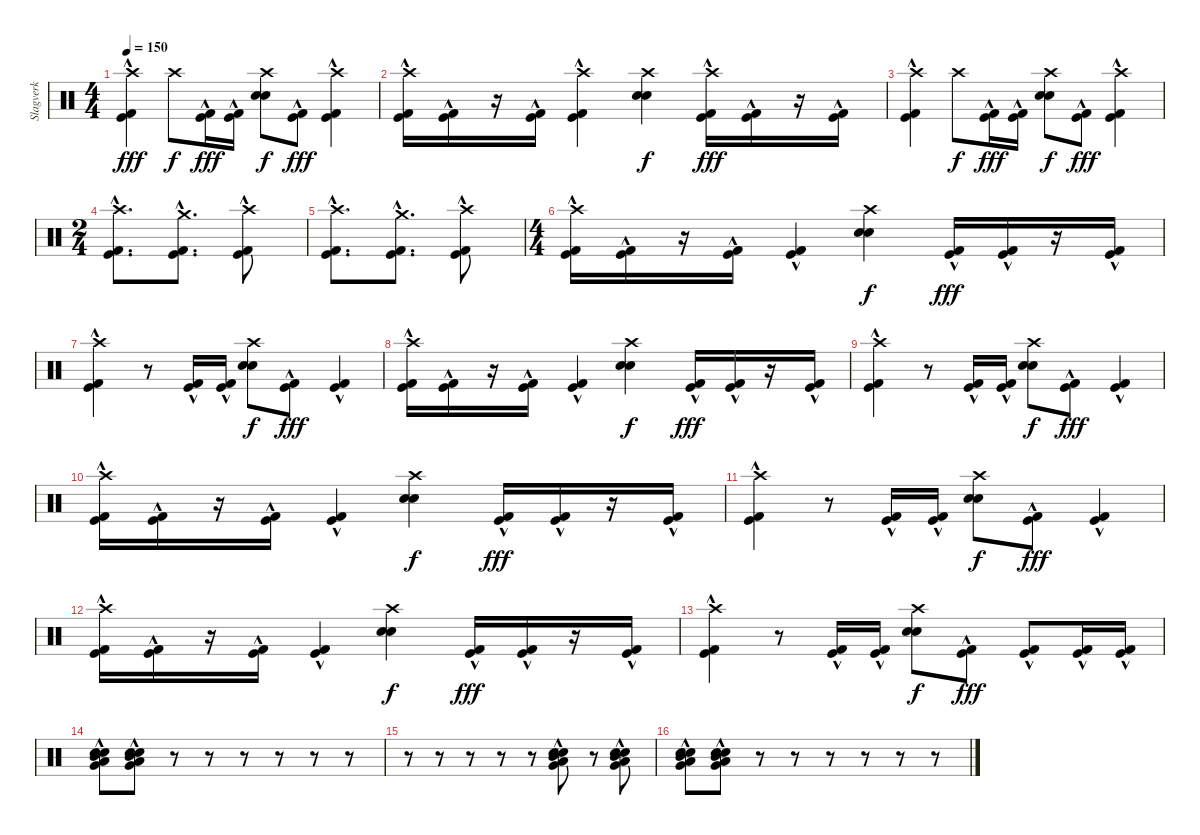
\track ("Slagverk" "Slagverk") {instrument percussion}
\staff {score}
\articulation defaults
\ts (4 4)
\tempo 150
\clef neutral
\ks c
("Crash high (hit)" "Kick (hit)"{hac} "Kick (hit) 2"{hac}).4{dy fff} "Crash high (hit)".8{dy f} ("Kick (hit)"{hac} "Kick (hit) 2"{hac}).16{dy fff} ("Kick (hit)"{hac} "Kick (hit) 2"{hac}).16 ("Crash high (hit)" "Electric Snare (hit)" "Snare (hit) 2").8{dy f} ("Kick (hit)"{hac} "Kick (hit) 2"{hac}).8{dy fff} ("Crash high (hit)" "Kick (hit)"{hac} "Kick (hit) 2"{hac}).4 |
("Crash high (hit)" "Kick (hit)"{hac} "Kick (hit) 2"{hac}).16 ("Kick (hit)"{hac} "Kick (hit) 2"{hac}).16 r.16 ("Kick (hit)"{hac} "Kick (hit) 2"{hac}).16 ("Crash high (hit)" "Kick (hit)"{hac} "Kick (hit) 2"{hac}).4 ("Crash high (hit)" "Electric Snare (hit)" "Snare (hit) 2").4{dy f} ("Crash high (hit)" "Kick (hit)"{hac} "Kick (hit) 2"{hac}).16{dy fff} ("Kick (hit)"{hac} "Kick (hit) 2"{hac}).16 r.16 ("Kick (hit)"{hac} "Kick (hit) 2"{hac}).16 |
("Crash high (hit)" "Kick (hit)"{hac} "Kick (hit) 2"{hac}).4 "Crash high (hit)".8{dy f} ("Kick (hit)"{hac} "Kick (hit) 2"{hac}).16{dy fff} ("Kick (hit)"{hac} "Kick (hit) 2"{hac}).16 ("Crash high (hit)" "Electric Snare (hit)" "Snare (hit) 2").8{dy f} ("Kick (hit)"{hac} "Kick (hit) 2"{hac}).8{dy fff} ("Crash high (hit)" "Kick (hit)"{hac} "Kick (hit) 2"{hac}).4 |
\ts (2 4)
("Crash high (hit)" "Kick (hit)"{hac} "Kick (hit) 2"{hac}).8{d} ("Crash medium (hit)" "Kick (hit)"{hac} "Kick (hit) 2"{hac}).8{d} ("Crash high (hit)" "Kick (hit)"{hac} "Kick (hit) 2"{hac}).8 |
("Crash high (hit)" "Kick (hit)"{hac} "Kick (hit) 2"{hac}).8{d} ("Crash medium (hit)" "Kick (hit)"{hac} "Kick (hit) 2"{hac}).8{d} ("Crash high (hit)" "Kick (hit)"{hac} "Kick (hit) 2"{hac}).8 |
\ts (4 4)
("Crash high (hit)" "Kick (hit)"{hac} "Kick (hit) 2"{hac}).16 ("Kick (hit)"{hac} "Kick (hit) 2"{hac}).16 r.16 ("Kick (hit)"{hac} "Kick (hit) 2"{hac}).16 ("Kick (hit)"{hac} "Kick (hit) 2"{hac}).4 ("Crash high (hit)" "Electric Snare (hit)" "Snare (hit) 2").4{dy f} ("Kick (hit)"{hac} "Kick (hit) 2"{hac}).16{dy fff} ("Kick (hit)"{hac} "Kick (hit) 2"{hac}).16 r.16 ("Kick (hit)"{hac} "Kick (hit) 2"{hac}).16 |
("Crash high (hit)" "Kick (hit)"{hac} "Kick (hit) 2"{hac}).4 r.8 ("Kick (hit)"{hac} "Kick (hit) 2"{hac}).16 ("Kick (hit)"{hac} "Kick (hit) 2"{hac}).16 ("Crash high (hit)" "Electric Snare (hit)" "Snare (hit) 2").8{dy f} ("Kick (hit)"{hac} "Kick (hit) 2"{hac}).8{dy fff} ("Kick (hit)"{hac} "Kick (hit) 2"{hac}).4 |
("Crash high (hit)" "Kick (hit)"{hac} "Kick (hit) 2"{hac}).16 ("Kick (hit)"{hac} "Kick (hit) 2"{hac}).16 r.16 ("Kick (hit)"{hac} "Kick (hit) 2"{hac}).16 ("Kick (hit)"{hac} "Kick (hit) 2"{hac}).4 ("Crash high (hit)" "Electric Snare (hit)" "Snare (hit) 2").4{dy f} ("Kick (hit)"{hac} "Kick (hit) 2"{hac}).16{dy fff} ("Kick (hit)"{hac} "Kick (hit) 2"{hac}).16 r.16 ("Kick (hit)"{hac} "Kick (hit) 2"{hac}).16 |
("Crash high (hit)" "Kick (hit)"{hac} "Kick (hit) 2"{hac}).4 r.8 ("Kick (hit)"{hac} "Kick (hit) 2"{hac}).16 ("Kick (hit)"{hac} "Kick (hit) 2"{hac}).16 ("Crash high (hit)" "Electric Snare (hit)" "Snare (hit) 2").8{dy f} ("Kick (hit)"{hac} "Kick (hit) 2"{hac}).8{dy fff} ("Kick (hit)"{hac} "Kick (hit) 2"{hac}).4 |
("Crash high (hit)" "Kick (hit)"{hac} "Kick (hit) 2"{hac}).16 ("Kick (hit)"{hac} "Kick (hit) 2"{hac}).16 r.16 ("Kick (hit)"{hac} "Kick (hit) 2"{hac}).16 ("Kick (hit)"{hac} "Kick (hit) 2"{hac}).4 ("Crash high (hit)" "Electric Snare (hit)" "Snare (hit) 2").4{dy f} ("Kick (hit)"{hac} "Kick (hit) 2"{hac}).16{dy fff} ("Kick (hit)"{hac} "Kick (hit) 2"{hac}).16 r.16 ("Kick (hit)"{hac} "Kick (hit) 2"{hac}).16 |
("Crash high (hit)" "Kick (hit)"{hac} "Kick (hit) 2"{hac}).4 r.8 ("Kick (hit)"{hac} "Kick (hit) 2"{hac}).16 ("Kick (hit)"{hac} "Kick (hit) 2"{hac}).16 ("Crash high (hit)" "Electric Snare (hit)" "Snare (hit) 2").8{dy f} ("Kick (hit)"{hac} "Kick (hit) 2"{hac}).8{dy fff} ("Kick (hit)"{hac} "Kick (hit) 2"{hac}).4 |
("Crash high (hit)" "Kick (hit)"{hac} "Kick (hit) 2"{hac}).16 ("Kick (hit)"{hac} "Kick (hit) 2"{hac}).16 r.16 ("Kick (hit)"{hac} "Kick (hit) 2"{hac}).16 ("Kick (hit)"{hac} "Kick (hit) 2"{hac}).4 ("Crash high (hit)" "Electric Snare (hit)" "Snare (hit) 2").4{dy f} ("Kick (hit)"{hac} "Kick (hit) 2"{hac}).16{dy fff} ("Kick (hit)"{hac} "Kick (hit) 2"{hac}).16 r.16 ("Kick (hit)"{hac} "Kick (hit) 2"{hac}).16 |
("Crash high (hit)" "Kick (hit)"{hac} "Kick (hit) 2"{hac}).4 r.8 ("Kick (hit)"{hac} "Kick (hit) 2"{hac}).16 ("Kick (hit)"{hac} "Kick (hit) 2"{hac}).16 ("Crash high (hit)" "Electric Snare (hit)" "Snare (hit) 2").8{dy f} ("Kick (hit)"{hac} "Kick (hit) 2"{hac}).8{dy fff} ("Kick (hit)"{hac} "Kick (hit) 2"{hac}).8 ("Kick (hit)"{hac} "Kick (hit) 2"{hac}).16 ("Kick (hit)"{hac} "Kick (hit) 2"{hac}).16 |
("Very Low Tom (hit)"{hac} "Electric Snare (hit)" "Snare (hit) 2" "Low Tom (hit)"{hac} "Mid Tom (hit)"{hac}).8 ("Very Low Tom (hit)"{hac} "Electric Snare (hit)" "Snare (hit) 2" "Low Tom (hit)"{hac} "Mid Tom (hit)"{hac}).8 r.8 r.8 r.8 r.8 r.8 r.8 |
r.8 r.8 r.8 r.8 r.8 ("Very Low Tom (hit)"{hac} "Electric Snare (hit)" "Snare (hit) 2" "Low Tom (hit)"{hac} "Mid Tom (hit)"{hac}).8 r.8 ("Very Low Tom (hit)"{hac} "Electric Snare (hit)" "Snare (hit) 2" "Low Tom (hit)"{hac} "Mid Tom (hit)"{hac}).8 |
("Very Low Tom (hit)"{hac} "Electric Snare (hit)" "Snare (hit) 2" "Low Tom (hit)"{hac} "Mid Tom (hit)"{hac}).8 ("Very Low Tom (hit)"{hac} "Electric Snare (hit)" "Snare (hit) 2" "Low Tom (hit)"{hac} "Mid Tom (hit)"{hac}).8 r.8 r.8 r.8 r.8 r.8 r.8
